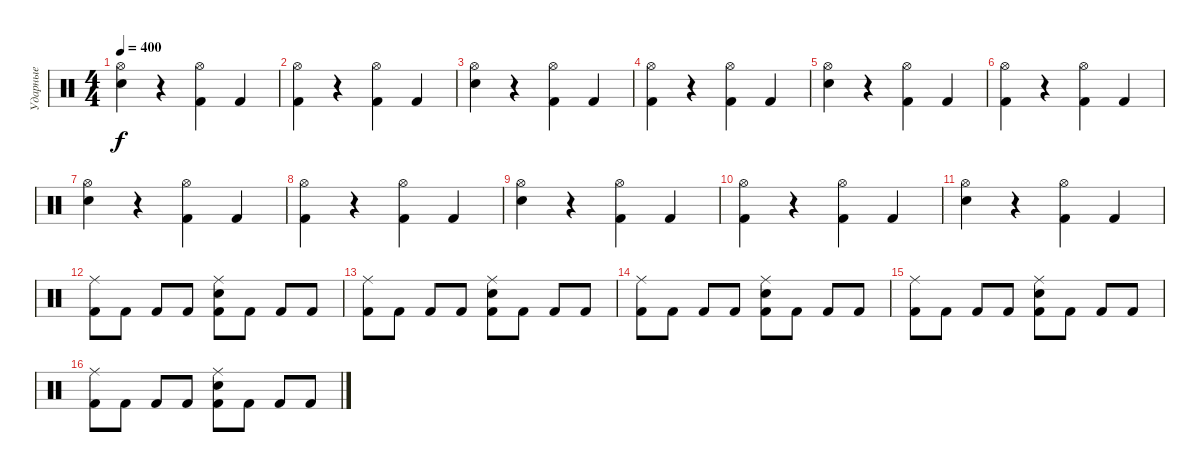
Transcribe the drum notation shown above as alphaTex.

\track ("Ударные" "Ударные") {instrument percussion}
\staff {score}
\articulation defaults
\ts (4 4)
\tempo 400
\clef neutral
\ks c
("Electric Snare (hit)" "Hi-Hat (open)").4{dy f} r.4 ("Kick (hit) 2" "Hi-Hat (open)").4 "Kick (hit) 2".4 |
("Kick (hit) 2" "Hi-Hat (open)").4 r.4 ("Kick (hit) 2" "Hi-Hat (open)").4 "Kick (hit) 2".4 |
("Electric Snare (hit)" "Hi-Hat (open)").4 r.4 ("Kick (hit) 2" "Hi-Hat (open)").4 "Kick (hit) 2".4 |
("Kick (hit) 2" "Hi-Hat (open)").4 r.4 ("Kick (hit) 2" "Hi-Hat (open)").4 "Kick (hit) 2".4 |
("Electric Snare (hit)" "Hi-Hat (open)").4 r.4 ("Kick (hit) 2" "Hi-Hat (open)").4 "Kick (hit) 2".4 |
("Kick (hit) 2" "Hi-Hat (open)").4 r.4 ("Kick (hit) 2" "Hi-Hat (open)").4 "Kick (hit) 2".4 |
("Electric Snare (hit)" "Hi-Hat (open)").4 r.4 ("Kick (hit) 2" "Hi-Hat (open)").4 "Kick (hit) 2".4 |
("Kick (hit) 2" "Hi-Hat (open)").4 r.4 ("Kick (hit) 2" "Hi-Hat (open)").4 "Kick (hit) 2".4 |
("Electric Snare (hit)" "Hi-Hat (open)").4 r.4 ("Kick (hit) 2" "Hi-Hat (open)").4 "Kick (hit) 2".4 |
("Kick (hit) 2" "Hi-Hat (open)").4 r.4 ("Kick (hit) 2" "Hi-Hat (open)").4 "Kick (hit) 2".4 |
("Electric Snare (hit)" "Hi-Hat (open)").4 r.4 ("Kick (hit) 2" "Hi-Hat (open)").4 "Kick (hit) 2".4 |
("Ride (middle)" "Kick (hit) 2").8 "Kick (hit) 2".8 "Kick (hit) 2".8 "Kick (hit) 2".8 ("Kick (hit) 2" "Electric Snare (hit)" "Ride (middle)").8 "Kick (hit) 2".8 "Kick (hit) 2".8 "Kick (hit) 2".8 |
("Ride (middle)" "Kick (hit) 2").8 "Kick (hit) 2".8 "Kick (hit) 2".8 "Kick (hit) 2".8 ("Kick (hit) 2" "Electric Snare (hit)" "Ride (middle)").8 "Kick (hit) 2".8 "Kick (hit) 2".8 "Kick (hit) 2".8 |
("Ride (middle)" "Kick (hit) 2").8 "Kick (hit) 2".8 "Kick (hit) 2".8 "Kick (hit) 2".8 ("Kick (hit) 2" "Electric Snare (hit)" "Ride (middle)").8 "Kick (hit) 2".8 "Kick (hit) 2".8 "Kick (hit) 2".8 |
("Ride (middle)" "Kick (hit) 2").8 "Kick (hit) 2".8 "Kick (hit) 2".8 "Kick (hit) 2".8 ("Kick (hit) 2" "Electric Snare (hit)" "Ride (middle)").8 "Kick (hit) 2".8 "Kick (hit) 2".8 "Kick (hit) 2".8 |
("Ride (middle)" "Kick (hit) 2").8 "Kick (hit) 2".8 "Kick (hit) 2".8 "Kick (hit) 2".8 ("Kick (hit) 2" "Electric Snare (hit)" "Ride (middle)").8 "Kick (hit) 2".8 "Kick (hit) 2".8 "Kick (hit) 2".8
